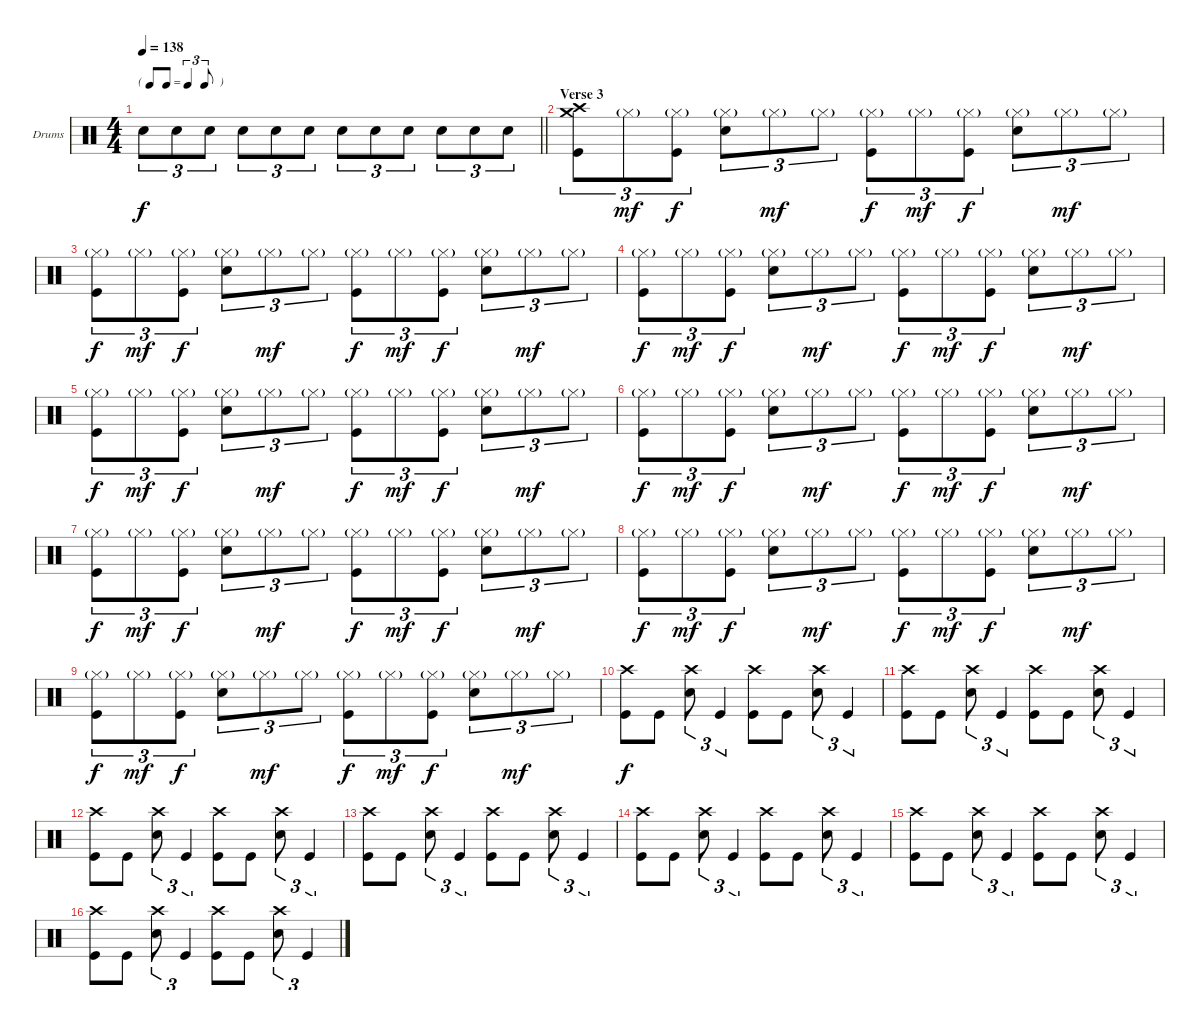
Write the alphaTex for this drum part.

\bracketExtendMode groupsimilarinstruments
\firstSystemTrackNameOrientation horizontal
\otherSystemsTrackNameOrientation horizontal
\track ("Drumkit" "Drums") {instrument percussion}
\staff {score}
\articulation defaults
\ts (4 4)
\tf triplet8th
\tempo 138
\clef neutral
\barLineRight lightlight
\ks c "Snare (hit) 2".8{tu (3 2) dy f} "Snare (hit) 2".8{tu (3 2)} "Snare (hit) 2".8{tu (3 2)} "Snare (hit) 2".8{tu (3 2)} "Snare (hit) 2".8{tu (3 2)} "Snare (hit) 2".8{tu (3 2)} "Snare (hit) 2".8{tu (3 2)} "Snare (hit) 2".8{tu (3 2)} "Snare (hit) 2".8{tu (3 2)} "Snare (hit) 2".8{tu (3 2)} "Snare (hit) 2".8{tu (3 2)} "Snare (hit) 2".8{tu (3 2)}
|
\section ("" "Verse 3")
("Crash high (hit)" "Crash medium (hit)" "Kick (hit)").8{tu (3 2)} "Hi-Hat (closed)"{g}.8{tu (3 2) dy mf} ("Hi-Hat (closed)"{g} "Kick (hit)").8{tu (3 2) dy f} ("Hi-Hat (closed)"{g} "Snare (hit) 2").8{tu (3 2)} "Hi-Hat (closed)"{g}.8{tu (3 2) dy mf} "Hi-Hat (closed)"{g}.8{tu (3 2)} ("Hi-Hat (closed)"{g} "Kick (hit)").8{tu (3 2) dy f} "Hi-Hat (closed)"{g}.8{tu (3 2) dy mf} ("Hi-Hat (closed)"{g} "Kick (hit)").8{tu (3 2) dy f} ("Hi-Hat (closed)"{g} "Snare (hit) 2").8{tu (3 2)} "Hi-Hat (closed)"{g}.8{tu (3 2) dy mf} "Hi-Hat (closed)"{g}.8{tu (3 2)} |
("Hi-Hat (closed)"{g} "Kick (hit)").8{tu (3 2) dy f} "Hi-Hat (closed)"{g}.8{tu (3 2) dy mf} ("Hi-Hat (closed)"{g} "Kick (hit)").8{tu (3 2) dy f} ("Hi-Hat (closed)"{g} "Snare (hit) 2").8{tu (3 2)} "Hi-Hat (closed)"{g}.8{tu (3 2) dy mf} "Hi-Hat (closed)"{g}.8{tu (3 2)} ("Hi-Hat (closed)"{g} "Kick (hit)").8{tu (3 2) dy f} "Hi-Hat (closed)"{g}.8{tu (3 2) dy mf} ("Hi-Hat (closed)"{g} "Kick (hit)").8{tu (3 2) dy f} ("Hi-Hat (closed)"{g} "Snare (hit) 2").8{tu (3 2)} "Hi-Hat (closed)"{g}.8{tu (3 2) dy mf} "Hi-Hat (closed)"{g}.8{tu (3 2)} |
("Hi-Hat (closed)"{g} "Kick (hit)").8{tu (3 2) dy f} "Hi-Hat (closed)"{g}.8{tu (3 2) dy mf} ("Hi-Hat (closed)"{g} "Kick (hit)").8{tu (3 2) dy f} ("Hi-Hat (closed)"{g} "Snare (hit) 2").8{tu (3 2)} "Hi-Hat (closed)"{g}.8{tu (3 2) dy mf} "Hi-Hat (closed)"{g}.8{tu (3 2)} ("Hi-Hat (closed)"{g} "Kick (hit)").8{tu (3 2) dy f} "Hi-Hat (closed)"{g}.8{tu (3 2) dy mf} ("Hi-Hat (closed)"{g} "Kick (hit)").8{tu (3 2) dy f} ("Hi-Hat (closed)"{g} "Snare (hit) 2").8{tu (3 2)} "Hi-Hat (closed)"{g}.8{tu (3 2) dy mf} "Hi-Hat (closed)"{g}.8{tu (3 2)} |
("Hi-Hat (closed)"{g} "Kick (hit)").8{tu (3 2) dy f} "Hi-Hat (closed)"{g}.8{tu (3 2) dy mf} ("Hi-Hat (closed)"{g} "Kick (hit)").8{tu (3 2) dy f} ("Hi-Hat (closed)"{g} "Snare (hit) 2").8{tu (3 2)} "Hi-Hat (closed)"{g}.8{tu (3 2) dy mf} "Hi-Hat (closed)"{g}.8{tu (3 2)} ("Hi-Hat (closed)"{g} "Kick (hit)").8{tu (3 2) dy f} "Hi-Hat (closed)"{g}.8{tu (3 2) dy mf} ("Hi-Hat (closed)"{g} "Kick (hit)").8{tu (3 2) dy f} ("Hi-Hat (closed)"{g} "Snare (hit) 2").8{tu (3 2)} "Hi-Hat (closed)"{g}.8{tu (3 2) dy mf} "Hi-Hat (closed)"{g}.8{tu (3 2)} |
("Hi-Hat (closed)"{g} "Kick (hit)").8{tu (3 2) dy f} "Hi-Hat (closed)"{g}.8{tu (3 2) dy mf} ("Hi-Hat (closed)"{g} "Kick (hit)").8{tu (3 2) dy f} ("Hi-Hat (closed)"{g} "Snare (hit) 2").8{tu (3 2)} "Hi-Hat (closed)"{g}.8{tu (3 2) dy mf} "Hi-Hat (closed)"{g}.8{tu (3 2)} ("Hi-Hat (closed)"{g} "Kick (hit)").8{tu (3 2) dy f} "Hi-Hat (closed)"{g}.8{tu (3 2) dy mf} ("Hi-Hat (closed)"{g} "Kick (hit)").8{tu (3 2) dy f} ("Hi-Hat (closed)"{g} "Snare (hit) 2").8{tu (3 2)} "Hi-Hat (closed)"{g}.8{tu (3 2) dy mf} "Hi-Hat (closed)"{g}.8{tu (3 2)} |
("Hi-Hat (closed)"{g} "Kick (hit)").8{tu (3 2) dy f} "Hi-Hat (closed)"{g}.8{tu (3 2) dy mf} ("Hi-Hat (closed)"{g} "Kick (hit)").8{tu (3 2) dy f} ("Hi-Hat (closed)"{g} "Snare (hit) 2").8{tu (3 2)} "Hi-Hat (closed)"{g}.8{tu (3 2) dy mf} "Hi-Hat (closed)"{g}.8{tu (3 2)} ("Hi-Hat (closed)"{g} "Kick (hit)").8{tu (3 2) dy f} "Hi-Hat (closed)"{g}.8{tu (3 2) dy mf} ("Hi-Hat (closed)"{g} "Kick (hit)").8{tu (3 2) dy f} ("Hi-Hat (closed)"{g} "Snare (hit) 2").8{tu (3 2)} "Hi-Hat (closed)"{g}.8{tu (3 2) dy mf} "Hi-Hat (closed)"{g}.8{tu (3 2)} |
("Hi-Hat (closed)"{g} "Kick (hit)").8{tu (3 2) dy f} "Hi-Hat (closed)"{g}.8{tu (3 2) dy mf} ("Hi-Hat (closed)"{g} "Kick (hit)").8{tu (3 2) dy f} ("Hi-Hat (closed)"{g} "Snare (hit) 2").8{tu (3 2)} "Hi-Hat (closed)"{g}.8{tu (3 2) dy mf} "Hi-Hat (closed)"{g}.8{tu (3 2)} ("Hi-Hat (closed)"{g} "Kick (hit)").8{tu (3 2) dy f} "Hi-Hat (closed)"{g}.8{tu (3 2) dy mf} ("Hi-Hat (closed)"{g} "Kick (hit)").8{tu (3 2) dy f} ("Hi-Hat (closed)"{g} "Snare (hit) 2").8{tu (3 2)} "Hi-Hat (closed)"{g}.8{tu (3 2) dy mf} "Hi-Hat (closed)"{g}.8{tu (3 2)} |
("Hi-Hat (closed)"{g} "Kick (hit)").8{tu (3 2) dy f} "Hi-Hat (closed)"{g}.8{tu (3 2) dy mf} ("Hi-Hat (closed)"{g} "Kick (hit)").8{tu (3 2) dy f} ("Hi-Hat (closed)"{g} "Snare (hit) 2").8{tu (3 2)} "Hi-Hat (closed)"{g}.8{tu (3 2) dy mf} "Hi-Hat (closed)"{g}.8{tu (3 2)} ("Hi-Hat (closed)"{g} "Kick (hit)").8{tu (3 2) dy f} "Hi-Hat (closed)"{g}.8{tu (3 2) dy mf} ("Hi-Hat (closed)"{g} "Kick (hit)").8{tu (3 2) dy f} ("Hi-Hat (closed)"{g} "Snare (hit) 2").8{tu (3 2)} "Hi-Hat (closed)"{g}.8{tu (3 2) dy mf} "Hi-Hat (closed)"{g}.8{tu (3 2)} |
("Crash high (hit)" "Kick (hit)").8{dy f} "Kick (hit)".8 ("Crash high (hit)" "Snare (hit) 2").8{tu (3 2)} "Kick (hit)".4{tu (3 2)} ("Crash high (hit)" "Kick (hit)").8 "Kick (hit)".8 ("Crash high (hit)" "Snare (hit) 2").8{tu (3 2)} "Kick (hit)".4{tu (3 2)} |
("Crash high (hit)" "Kick (hit)").8 "Kick (hit)".8 ("Crash high (hit)" "Snare (hit) 2").8{tu (3 2)} "Kick (hit)".4{tu (3 2)} ("Crash high (hit)" "Kick (hit)").8 "Kick (hit)".8 ("Crash high (hit)" "Snare (hit) 2").8{tu (3 2)} "Kick (hit)".4{tu (3 2)} |
("Crash high (hit)" "Kick (hit)").8 "Kick (hit)".8 ("Crash high (hit)" "Snare (hit) 2").8{tu (3 2)} "Kick (hit)".4{tu (3 2)} ("Crash high (hit)" "Kick (hit)").8 "Kick (hit)".8 ("Crash high (hit)" "Snare (hit) 2").8{tu (3 2)} "Kick (hit)".4{tu (3 2)} |
("Crash high (hit)" "Kick (hit)").8 "Kick (hit)".8 ("Crash high (hit)" "Snare (hit) 2").8{tu (3 2)} "Kick (hit)".4{tu (3 2)} ("Crash high (hit)" "Kick (hit)").8 "Kick (hit)".8 ("Crash high (hit)" "Snare (hit) 2").8{tu (3 2)} "Kick (hit)".4{tu (3 2)} |
("Crash high (hit)" "Kick (hit)").8 "Kick (hit)".8 ("Crash high (hit)" "Snare (hit) 2").8{tu (3 2)} "Kick (hit)".4{tu (3 2)} ("Crash high (hit)" "Kick (hit)").8 "Kick (hit)".8 ("Crash high (hit)" "Snare (hit) 2").8{tu (3 2)} "Kick (hit)".4{tu (3 2)} |
("Crash high (hit)" "Kick (hit)").8 "Kick (hit)".8 ("Crash high (hit)" "Snare (hit) 2").8{tu (3 2)} "Kick (hit)".4{tu (3 2)} ("Crash high (hit)" "Kick (hit)").8 "Kick (hit)".8 ("Crash high (hit)" "Snare (hit) 2").8{tu (3 2)} "Kick (hit)".4{tu (3 2)} |
("Crash high (hit)" "Kick (hit)").8 "Kick (hit)".8 ("Crash high (hit)" "Snare (hit) 2").8{tu (3 2)} "Kick (hit)".4{tu (3 2)} ("Crash high (hit)" "Kick (hit)").8 "Kick (hit)".8 ("Crash high (hit)" "Snare (hit) 2").8{tu (3 2)} "Kick (hit)".4{tu (3 2)}
